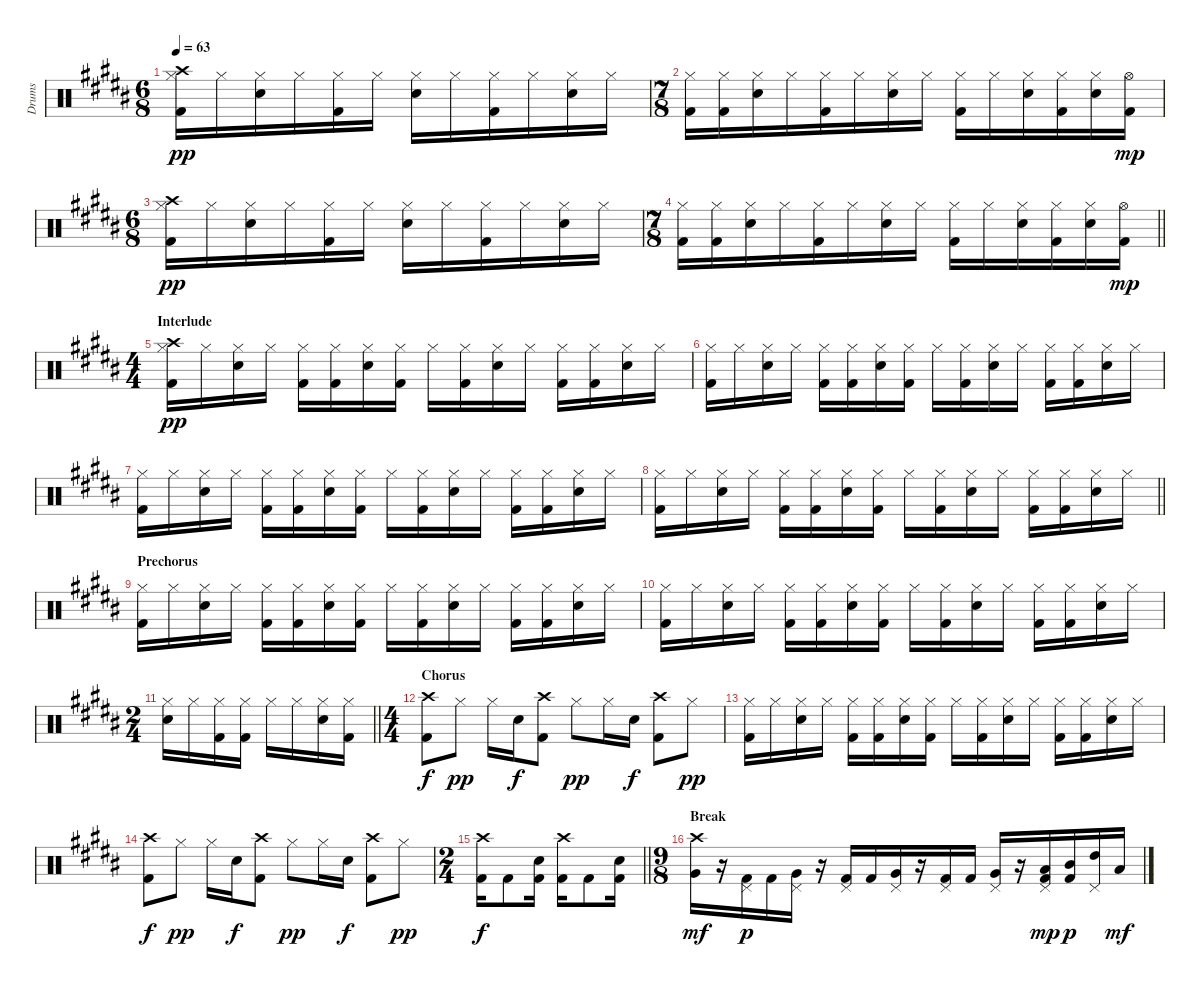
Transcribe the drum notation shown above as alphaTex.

\track ("Drums" "Drums") {instrument percussion}
\staff {score}
\articulation defaults
\ts (6 8)
\tempo 63
\clef neutral
\ks b
("Crash high (hit)" "Hi-Hat (closed)" "Kick (hit) 2").16{dy pp} "Hi-Hat (closed)".16 ("Snare (hit) 2" "Hi-Hat (closed)").16 "Hi-Hat (closed)".16 ("Hi-Hat (closed)" "Kick (hit) 2").16 "Hi-Hat (closed)".16 ("Snare (hit) 2" "Hi-Hat (closed)").16 "Hi-Hat (closed)".16 ("Hi-Hat (closed)" "Kick (hit) 2").16 "Hi-Hat (closed)".16 ("Snare (hit) 2" "Hi-Hat (closed)").16 "Hi-Hat (closed)".16 |
\ts (7 8)
("Hi-Hat (closed)" "Kick (hit) 2").16 ("Hi-Hat (closed)" "Kick (hit) 2").16 ("Snare (hit) 2" "Hi-Hat (closed)").16 "Hi-Hat (closed)".16 ("Hi-Hat (closed)" "Kick (hit) 2").16 "Hi-Hat (closed)".16 ("Snare (hit) 2" "Hi-Hat (closed)").16 "Hi-Hat (closed)".16 ("Hi-Hat (closed)" "Kick (hit) 2").16 "Hi-Hat (closed)".16 ("Snare (hit) 2" "Hi-Hat (closed)").16 ("Hi-Hat (closed)" "Kick (hit) 2").16 ("Snare (hit) 2" "Hi-Hat (closed)").16 ("Hi-Hat (open)" "Kick (hit) 2").16{dy mp} |
\ts (6 8)
("Crash high (hit)" "Hi-Hat (closed)" "Kick (hit) 2").16{dy pp} "Hi-Hat (closed)".16 ("Snare (hit) 2" "Hi-Hat (closed)").16 "Hi-Hat (closed)".16 ("Hi-Hat (closed)" "Kick (hit) 2").16 "Hi-Hat (closed)".16 ("Snare (hit) 2" "Hi-Hat (closed)").16 "Hi-Hat (closed)".16 ("Hi-Hat (closed)" "Kick (hit) 2").16 "Hi-Hat (closed)".16 ("Snare (hit) 2" "Hi-Hat (closed)").16 "Hi-Hat (closed)".16 |
\ts (7 8)
\barLineRight lightlight
("Hi-Hat (closed)" "Kick (hit) 2").16 ("Hi-Hat (closed)" "Kick (hit) 2").16 ("Snare (hit) 2" "Hi-Hat (closed)").16 "Hi-Hat (closed)".16 ("Hi-Hat (closed)" "Kick (hit) 2").16 "Hi-Hat (closed)".16 ("Snare (hit) 2" "Hi-Hat (closed)").16 "Hi-Hat (closed)".16 ("Hi-Hat (closed)" "Kick (hit) 2").16 "Hi-Hat (closed)".16 ("Snare (hit) 2" "Hi-Hat (closed)").16 ("Hi-Hat (closed)" "Kick (hit) 2").16 ("Snare (hit) 2" "Hi-Hat (closed)").16 ("Hi-Hat (open)" "Kick (hit) 2").16{dy mp} |
\ts (4 4)
\section ("" "Interlude")
("Crash high (hit)" "Hi-Hat (closed)" "Kick (hit) 2").16{dy pp} "Hi-Hat (closed)".16 ("Snare (hit) 2" "Hi-Hat (closed)").16 "Hi-Hat (closed)".16 ("Hi-Hat (closed)" "Kick (hit) 2").16 ("Hi-Hat (closed)" "Kick (hit) 2").16 ("Snare (hit) 2" "Hi-Hat (closed)").16 ("Hi-Hat (closed)" "Kick (hit) 2").16 "Hi-Hat (closed)".16 ("Hi-Hat (closed)" "Kick (hit) 2").16 ("Snare (hit) 2" "Hi-Hat (closed)").16 "Hi-Hat (closed)".16 ("Hi-Hat (closed)" "Kick (hit) 2").16 ("Hi-Hat (closed)" "Kick (hit) 2").16 ("Snare (hit) 2" "Hi-Hat (closed)").16 "Hi-Hat (closed)".16 |
("Hi-Hat (closed)" "Kick (hit) 2").16 "Hi-Hat (closed)".16 ("Snare (hit) 2" "Hi-Hat (closed)").16 "Hi-Hat (closed)".16 ("Hi-Hat (closed)" "Kick (hit) 2").16 ("Hi-Hat (closed)" "Kick (hit) 2").16 ("Snare (hit) 2" "Hi-Hat (closed)").16 ("Hi-Hat (closed)" "Kick (hit) 2").16 "Hi-Hat (closed)".16 ("Hi-Hat (closed)" "Kick (hit) 2").16 ("Snare (hit) 2" "Hi-Hat (closed)").16 "Hi-Hat (closed)".16 ("Hi-Hat (closed)" "Kick (hit) 2").16 ("Hi-Hat (closed)" "Kick (hit) 2").16 ("Snare (hit) 2" "Hi-Hat (closed)").16 "Hi-Hat (closed)".16 |
("Hi-Hat (closed)" "Kick (hit) 2").16 "Hi-Hat (closed)".16 ("Snare (hit) 2" "Hi-Hat (closed)").16 "Hi-Hat (closed)".16 ("Hi-Hat (closed)" "Kick (hit) 2").16 ("Hi-Hat (closed)" "Kick (hit) 2").16 ("Snare (hit) 2" "Hi-Hat (closed)").16 ("Hi-Hat (closed)" "Kick (hit) 2").16 "Hi-Hat (closed)".16 ("Hi-Hat (closed)" "Kick (hit) 2").16 ("Snare (hit) 2" "Hi-Hat (closed)").16 "Hi-Hat (closed)".16 ("Hi-Hat (closed)" "Kick (hit) 2").16 ("Hi-Hat (closed)" "Kick (hit) 2").16 ("Snare (hit) 2" "Hi-Hat (closed)").16 "Hi-Hat (closed)".16 |
\barLineRight lightlight
("Hi-Hat (closed)" "Kick (hit) 2").16 "Hi-Hat (closed)".16 ("Snare (hit) 2" "Hi-Hat (closed)").16 "Hi-Hat (closed)".16 ("Hi-Hat (closed)" "Kick (hit) 2").16 ("Hi-Hat (closed)" "Kick (hit) 2").16 ("Snare (hit) 2" "Hi-Hat (closed)").16 ("Hi-Hat (closed)" "Kick (hit) 2").16 "Hi-Hat (closed)".16 ("Hi-Hat (closed)" "Kick (hit) 2").16 ("Snare (hit) 2" "Hi-Hat (closed)").16 "Hi-Hat (closed)".16 ("Hi-Hat (closed)" "Kick (hit) 2").16 ("Hi-Hat (closed)" "Kick (hit) 2").16 ("Snare (hit) 2" "Hi-Hat (closed)").16 "Hi-Hat (closed)".16 |
\section ("" "Prechorus")
("Hi-Hat (closed)" "Kick (hit) 2").16 "Hi-Hat (closed)".16 ("Snare (hit) 2" "Hi-Hat (closed)").16 "Hi-Hat (closed)".16 ("Hi-Hat (closed)" "Kick (hit) 2").16 ("Hi-Hat (closed)" "Kick (hit) 2").16 ("Snare (hit) 2" "Hi-Hat (closed)").16 ("Hi-Hat (closed)" "Kick (hit) 2").16 "Hi-Hat (closed)".16 ("Hi-Hat (closed)" "Kick (hit) 2").16 ("Snare (hit) 2" "Hi-Hat (closed)").16 "Hi-Hat (closed)".16 ("Hi-Hat (closed)" "Kick (hit) 2").16 ("Hi-Hat (closed)" "Kick (hit) 2").16 ("Snare (hit) 2" "Hi-Hat (closed)").16 "Hi-Hat (closed)".16 |
("Hi-Hat (closed)" "Kick (hit) 2").16 "Hi-Hat (closed)".16 ("Snare (hit) 2" "Hi-Hat (closed)").16 "Hi-Hat (closed)".16 ("Hi-Hat (closed)" "Kick (hit) 2").16 ("Hi-Hat (closed)" "Kick (hit) 2").16 ("Snare (hit) 2" "Hi-Hat (closed)").16 ("Hi-Hat (closed)" "Kick (hit) 2").16 "Hi-Hat (closed)".16 ("Hi-Hat (closed)" "Kick (hit) 2").16 ("Snare (hit) 2" "Hi-Hat (closed)").16 "Hi-Hat (closed)".16 ("Hi-Hat (closed)" "Kick (hit) 2").16 ("Hi-Hat (closed)" "Kick (hit) 2").16 ("Snare (hit) 2" "Hi-Hat (closed)").16 "Hi-Hat (closed)".16 |
\ts (2 4)
\barLineRight lightlight
("Snare (hit) 2" "Hi-Hat (closed)").16 "Hi-Hat (closed)".16 ("Hi-Hat (closed)" "Kick (hit) 2").16 ("Hi-Hat (closed)" "Kick (hit) 2").16 "Hi-Hat (closed)".16 "Hi-Hat (closed)".16 ("Snare (hit) 2" "Hi-Hat (closed)").16 ("Hi-Hat (closed)" "Kick (hit) 2").16 |
\ts (4 4)
\section ("" "Chorus")
("Crash high (hit)" "Kick (hit) 2").8{dy f} "Hi-Hat (closed)".8{dy pp} "Hi-Hat (closed)".16 "Snare (hit) 2".16{dy f} ("Crash high (hit)" "Kick (hit) 2").8 "Hi-Hat (closed)".8{dy pp} "Hi-Hat (closed)".16 "Snare (hit) 2".16{dy f} ("Crash high (hit)" "Kick (hit) 2").8 "Hi-Hat (closed)".8{dy pp} |
("Hi-Hat (closed)" "Kick (hit) 2").16 "Hi-Hat (closed)".16 ("Snare (hit) 2" "Hi-Hat (closed)").16 "Hi-Hat (closed)".16 ("Hi-Hat (closed)" "Kick (hit) 2").16 ("Hi-Hat (closed)" "Kick (hit) 2").16 ("Snare (hit) 2" "Hi-Hat (closed)").16 ("Hi-Hat (closed)" "Kick (hit) 2").16 "Hi-Hat (closed)".16 ("Hi-Hat (closed)" "Kick (hit) 2").16 ("Snare (hit) 2" "Hi-Hat (closed)").16 "Hi-Hat (closed)".16 ("Hi-Hat (closed)" "Kick (hit) 2").16 ("Hi-Hat (closed)" "Kick (hit) 2").16 ("Snare (hit) 2" "Hi-Hat (closed)").16 "Hi-Hat (closed)".16 |
("Crash high (hit)" "Kick (hit) 2").8{dy f} "Hi-Hat (closed)".8{dy pp} "Hi-Hat (closed)".16 "Snare (hit) 2".16{dy f} ("Crash high (hit)" "Kick (hit) 2").8 "Hi-Hat (closed)".8{dy pp} "Hi-Hat (closed)".16 "Snare (hit) 2".16{dy f} ("Crash high (hit)" "Kick (hit) 2").8 "Hi-Hat (closed)".8{dy pp} |
\ts (2 4)
\barLineRight lightlight
("Crash high (hit)" "Kick (hit) 2").16{dy f} "Kick (hit) 2".8 ("Snare (hit) 2" "Kick (hit) 2").16 ("Crash high (hit)" "Kick (hit) 2").16 "Kick (hit) 2".8 ("Snare (hit) 2" "Kick (hit) 2").16 |
\ts (9 8)
\section ("" "Break")
("Crash high (hit)" "Very Low Tom (hit)").16{dy mf} r.16 ("Pedal Hi-Hat (hit)" "Kick (hit) 2").16{dy p} "Kick (hit) 2".16 ("Very Low Tom (hit)" "Pedal Hi-Hat (hit)").16 r.16 ("Pedal Hi-Hat (hit)" "Kick (hit) 2").16 "Kick (hit) 2".16 ("Very Low Tom (hit)" "Pedal Hi-Hat (hit)").16 r.16 ("Pedal Hi-Hat (hit)" "Kick (hit) 2").16 "Kick (hit) 2".16 ("Very Low Tom (hit)" "Pedal Hi-Hat (hit)").16 r.16 ("Low Tom (hit)" "Pedal Hi-Hat (hit)" "Kick (hit) 2").16{dy mp} ("Mid Tom (hit)" "Kick (hit) 2").16{dy p} ("High Tom (hit)" "Pedal Hi-Hat (hit)").16 "Low Tom (hit)".16{dy mf}
